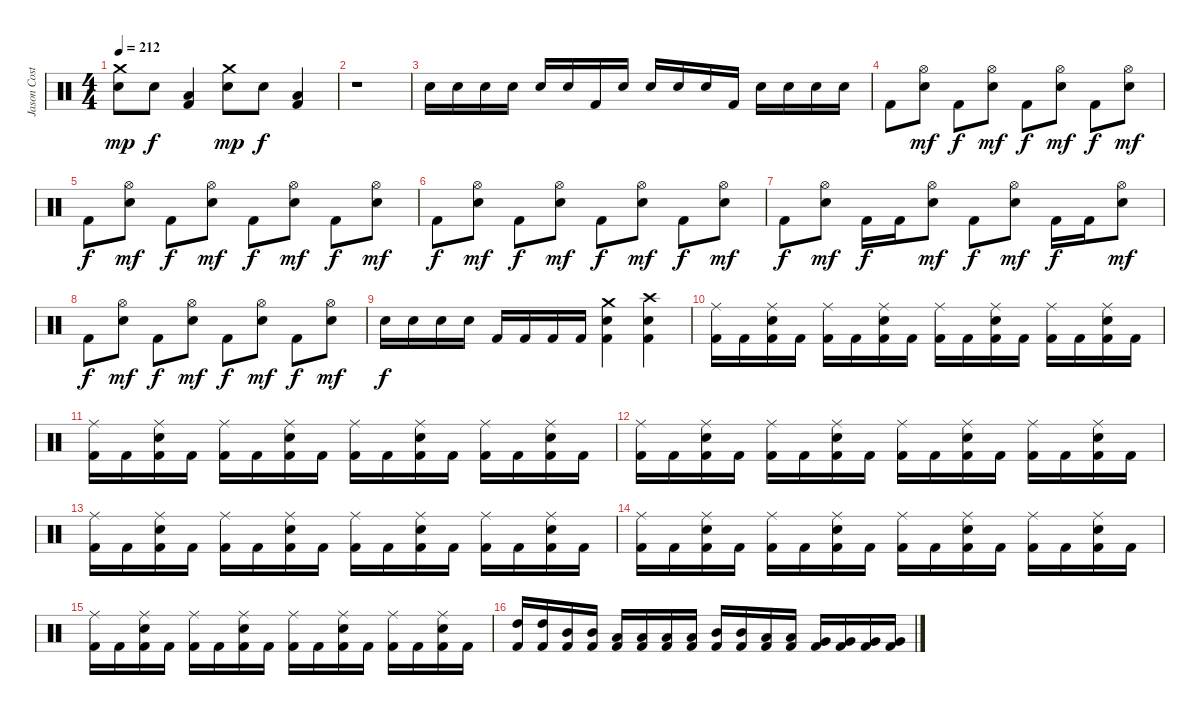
\track ("Jason Costa" "Jason Cost") {instrument percussion}
\staff {score}
\articulation defaults
\ts (4 4)
\tempo 212
\clef neutral
\ks c
("Crash medium (hit)" "Electric Snare (hit)").8{dy mp} "Electric Snare (hit)".8{dy f} ("Low Tom (hit)" "Kick (hit) 2").4 ("Crash medium (hit)" "Electric Snare (hit)").8{dy mp} "Electric Snare (hit)".8{dy f} ("Low Tom (hit)" "Kick (hit) 2").4 |
r.1 |
"Electric Snare (hit)".16 "Electric Snare (hit)".16 "Electric Snare (hit)".16 "Electric Snare (hit)".16 "Electric Snare (hit)".16 "Electric Snare (hit)".16 "Kick (hit) 2".16 "Electric Snare (hit)".16 "Electric Snare (hit)".16 "Electric Snare (hit)".16 "Electric Snare (hit)".16 "Kick (hit) 2".16 "Electric Snare (hit)".16 "Electric Snare (hit)".16 "Electric Snare (hit)".16 "Electric Snare (hit)".16 |
"Kick (hit) 2".8 ("Hi-Hat (open)" "Electric Snare (hit)").8{dy mf} "Kick (hit) 2".8{dy f} ("Hi-Hat (open)" "Electric Snare (hit)").8{dy mf} "Kick (hit) 2".8{dy f} ("Hi-Hat (open)" "Electric Snare (hit)").8{dy mf} "Kick (hit) 2".8{dy f} ("Hi-Hat (open)" "Electric Snare (hit)").8{dy mf} |
"Kick (hit) 2".8{dy f} ("Hi-Hat (open)" "Electric Snare (hit)").8{dy mf} "Kick (hit) 2".8{dy f} ("Hi-Hat (open)" "Electric Snare (hit)").8{dy mf} "Kick (hit) 2".8{dy f} ("Hi-Hat (open)" "Electric Snare (hit)").8{dy mf} "Kick (hit) 2".8{dy f} ("Hi-Hat (open)" "Electric Snare (hit)").8{dy mf} |
"Kick (hit) 2".8{dy f} ("Hi-Hat (open)" "Electric Snare (hit)").8{dy mf} "Kick (hit) 2".8{dy f} ("Hi-Hat (open)" "Electric Snare (hit)").8{dy mf} "Kick (hit) 2".8{dy f} ("Hi-Hat (open)" "Electric Snare (hit)").8{dy mf} "Kick (hit) 2".8{dy f} ("Hi-Hat (open)" "Electric Snare (hit)").8{dy mf} |
"Kick (hit) 2".8{dy f} ("Hi-Hat (open)" "Electric Snare (hit)").8{dy mf} "Kick (hit) 2".16{dy f} "Kick (hit) 2".16 ("Hi-Hat (open)" "Electric Snare (hit)").8{dy mf} "Kick (hit) 2".8{dy f} ("Hi-Hat (open)" "Electric Snare (hit)").8{dy mf} "Kick (hit) 2".16{dy f} "Kick (hit) 2".16 ("Hi-Hat (open)" "Electric Snare (hit)").8{dy mf} |
"Kick (hit) 2".8{dy f} ("Hi-Hat (open)" "Electric Snare (hit)").8{dy mf} "Kick (hit) 2".8{dy f} ("Hi-Hat (open)" "Electric Snare (hit)").8{dy mf} "Kick (hit) 2".8{dy f} ("Hi-Hat (open)" "Electric Snare (hit)").8{dy mf} "Kick (hit) 2".8{dy f} ("Hi-Hat (open)" "Electric Snare (hit)").8{dy mf} |
"Electric Snare (hit)".16{dy f} "Electric Snare (hit)".16 "Electric Snare (hit)".16 "Electric Snare (hit)".16 "Kick (hit) 2".16 "Kick (hit) 2".16 "Kick (hit) 2".16 "Kick (hit) 2".16 ("Crash medium (hit)" "Electric Snare (hit)" "Kick (hit) 2").4 ("Crash high (hit)" "Electric Snare (hit)" "Kick (hit) 2").4 |
("Ride (middle)" "Kick (hit) 2").16 "Kick (hit) 2".16 ("Ride (middle)" "Electric Snare (hit)" "Kick (hit) 2").16 "Kick (hit) 2".16 ("Ride (middle)" "Kick (hit) 2").16 "Kick (hit) 2".16 ("Ride (middle)" "Electric Snare (hit)" "Kick (hit) 2").16 "Kick (hit) 2".16 ("Ride (middle)" "Kick (hit) 2").16 "Kick (hit) 2".16 ("Ride (middle)" "Electric Snare (hit)" "Kick (hit) 2").16 "Kick (hit) 2".16 ("Ride (middle)" "Kick (hit) 2").16 "Kick (hit) 2".16 ("Ride (middle)" "Electric Snare (hit)" "Kick (hit) 2").16 "Kick (hit) 2".16 |
("Ride (middle)" "Kick (hit) 2").16 "Kick (hit) 2".16 ("Ride (middle)" "Electric Snare (hit)" "Kick (hit) 2").16 "Kick (hit) 2".16 ("Ride (middle)" "Kick (hit) 2").16 "Kick (hit) 2".16 ("Ride (middle)" "Electric Snare (hit)" "Kick (hit) 2").16 "Kick (hit) 2".16 ("Ride (middle)" "Kick (hit) 2").16 "Kick (hit) 2".16 ("Ride (middle)" "Electric Snare (hit)" "Kick (hit) 2").16 "Kick (hit) 2".16 ("Ride (middle)" "Kick (hit) 2").16 "Kick (hit) 2".16 ("Ride (middle)" "Electric Snare (hit)" "Kick (hit) 2").16 "Kick (hit) 2".16 |
("Ride (middle)" "Kick (hit) 2").16 "Kick (hit) 2".16 ("Ride (middle)" "Electric Snare (hit)" "Kick (hit) 2").16 "Kick (hit) 2".16 ("Ride (middle)" "Kick (hit) 2").16 "Kick (hit) 2".16 ("Ride (middle)" "Electric Snare (hit)" "Kick (hit) 2").16 "Kick (hit) 2".16 ("Ride (middle)" "Kick (hit) 2").16 "Kick (hit) 2".16 ("Ride (middle)" "Electric Snare (hit)" "Kick (hit) 2").16 "Kick (hit) 2".16 ("Ride (middle)" "Kick (hit) 2").16 "Kick (hit) 2".16 ("Ride (middle)" "Electric Snare (hit)" "Kick (hit) 2").16 "Kick (hit) 2".16 |
("Ride (middle)" "Kick (hit) 2").16 "Kick (hit) 2".16 ("Ride (middle)" "Electric Snare (hit)" "Kick (hit) 2").16 "Kick (hit) 2".16 ("Ride (middle)" "Kick (hit) 2").16 "Kick (hit) 2".16 ("Ride (middle)" "Electric Snare (hit)" "Kick (hit) 2").16 "Kick (hit) 2".16 ("Ride (middle)" "Kick (hit) 2").16 "Kick (hit) 2".16 ("Ride (middle)" "Electric Snare (hit)" "Kick (hit) 2").16 "Kick (hit) 2".16 ("Ride (middle)" "Kick (hit) 2").16 "Kick (hit) 2".16 ("Ride (middle)" "Electric Snare (hit)" "Kick (hit) 2").16 "Kick (hit) 2".16 |
("Ride (middle)" "Kick (hit) 2").16 "Kick (hit) 2".16 ("Ride (middle)" "Electric Snare (hit)" "Kick (hit) 2").16 "Kick (hit) 2".16 ("Ride (middle)" "Kick (hit) 2").16 "Kick (hit) 2".16 ("Ride (middle)" "Electric Snare (hit)" "Kick (hit) 2").16 "Kick (hit) 2".16 ("Ride (middle)" "Kick (hit) 2").16 "Kick (hit) 2".16 ("Ride (middle)" "Electric Snare (hit)" "Kick (hit) 2").16 "Kick (hit) 2".16 ("Ride (middle)" "Kick (hit) 2").16 "Kick (hit) 2".16 ("Ride (middle)" "Electric Snare (hit)" "Kick (hit) 2").16 "Kick (hit) 2".16 |
("Ride (middle)" "Kick (hit) 2").16 "Kick (hit) 2".16 ("Ride (middle)" "Electric Snare (hit)" "Kick (hit) 2").16 "Kick (hit) 2".16 ("Ride (middle)" "Kick (hit) 2").16 "Kick (hit) 2".16 ("Ride (middle)" "Electric Snare (hit)" "Kick (hit) 2").16 "Kick (hit) 2".16 ("Ride (middle)" "Kick (hit) 2").16 "Kick (hit) 2".16 ("Ride (middle)" "Electric Snare (hit)" "Kick (hit) 2").16 "Kick (hit) 2".16 ("Ride (middle)" "Kick (hit) 2").16 "Kick (hit) 2".16 ("Ride (middle)" "Electric Snare (hit)" "Kick (hit) 2").16 "Kick (hit) 2".16 |
("High Tom (hit)" "Kick (hit) 2").16 ("High Tom (hit)" "Kick (hit) 2").16 ("Mid Tom (hit)" "Kick (hit) 2").16 ("Mid Tom (hit)" "Kick (hit) 2").16 ("Low Tom (hit)" "Kick (hit) 2").16 ("Low Tom (hit)" "Kick (hit) 2").16 ("Low Tom (hit)" "Kick (hit) 2").16 ("Low Tom (hit)" "Kick (hit) 2").16 ("Mid Tom (hit)" "Kick (hit) 2").16 ("Mid Tom (hit)" "Kick (hit) 2").16 ("Low Tom (hit)" "Kick (hit) 2").16 ("Low Tom (hit)" "Kick (hit) 2").16 ("Very Low Tom (hit)" "Kick (hit) 2").16 ("Very Low Tom (hit)" "Kick (hit) 2").16 ("Very Low Tom (hit)" "Kick (hit) 2").16 ("Very Low Tom (hit)" "Kick (hit) 2").16
